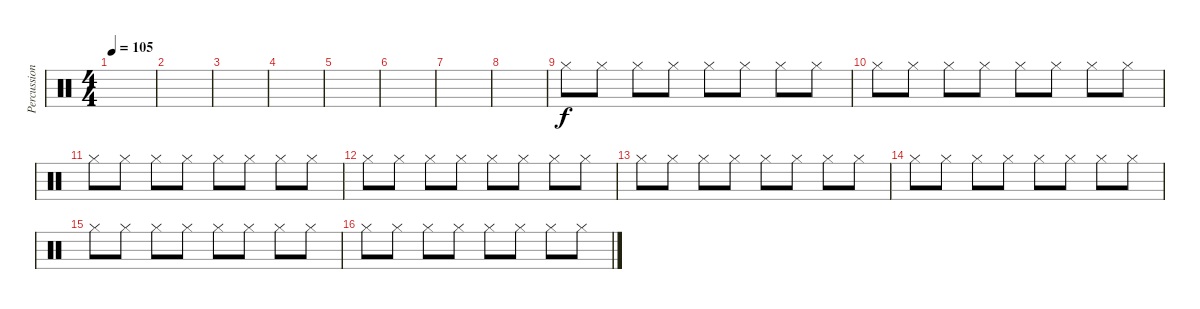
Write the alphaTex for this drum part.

\track ("Percussion" "Percussion") {instrument percussion}
\staff {score}
\articulation defaults
\ts (4 4)
\tempo 105
\clef neutral
\ks c
|
|
|
|
|
|
|
|
"Hi-Hat (closed)".8 "Hi-Hat (closed)".8 "Hi-Hat (closed)".8 "Hi-Hat (closed)".8 "Hi-Hat (closed)".8 "Hi-Hat (closed)".8 "Hi-Hat (closed)".8 "Hi-Hat (closed)".8 |
"Hi-Hat (closed)".8 "Hi-Hat (closed)".8 "Hi-Hat (closed)".8 "Hi-Hat (closed)".8 "Hi-Hat (closed)".8 "Hi-Hat (closed)".8 "Hi-Hat (closed)".8 "Hi-Hat (closed)".8 |
"Hi-Hat (closed)".8 "Hi-Hat (closed)".8 "Hi-Hat (closed)".8 "Hi-Hat (closed)".8 "Hi-Hat (closed)".8 "Hi-Hat (closed)".8 "Hi-Hat (closed)".8 "Hi-Hat (closed)".8 |
"Hi-Hat (closed)".8 "Hi-Hat (closed)".8 "Hi-Hat (closed)".8 "Hi-Hat (closed)".8 "Hi-Hat (closed)".8 "Hi-Hat (closed)".8 "Hi-Hat (closed)".8 "Hi-Hat (closed)".8 |
"Hi-Hat (closed)".8 "Hi-Hat (closed)".8 "Hi-Hat (closed)".8 "Hi-Hat (closed)".8 "Hi-Hat (closed)".8 "Hi-Hat (closed)".8 "Hi-Hat (closed)".8 "Hi-Hat (closed)".8 |
"Hi-Hat (closed)".8 "Hi-Hat (closed)".8 "Hi-Hat (closed)".8 "Hi-Hat (closed)".8 "Hi-Hat (closed)".8 "Hi-Hat (closed)".8 "Hi-Hat (closed)".8 "Hi-Hat (closed)".8 |
"Hi-Hat (closed)".8 "Hi-Hat (closed)".8 "Hi-Hat (closed)".8 "Hi-Hat (closed)".8 "Hi-Hat (closed)".8 "Hi-Hat (closed)".8 "Hi-Hat (closed)".8 "Hi-Hat (closed)".8 |
"Hi-Hat (closed)".8 "Hi-Hat (closed)".8 "Hi-Hat (closed)".8 "Hi-Hat (closed)".8 "Hi-Hat (closed)".8 "Hi-Hat (closed)".8 "Hi-Hat (closed)".8 "Hi-Hat (closed)".8
